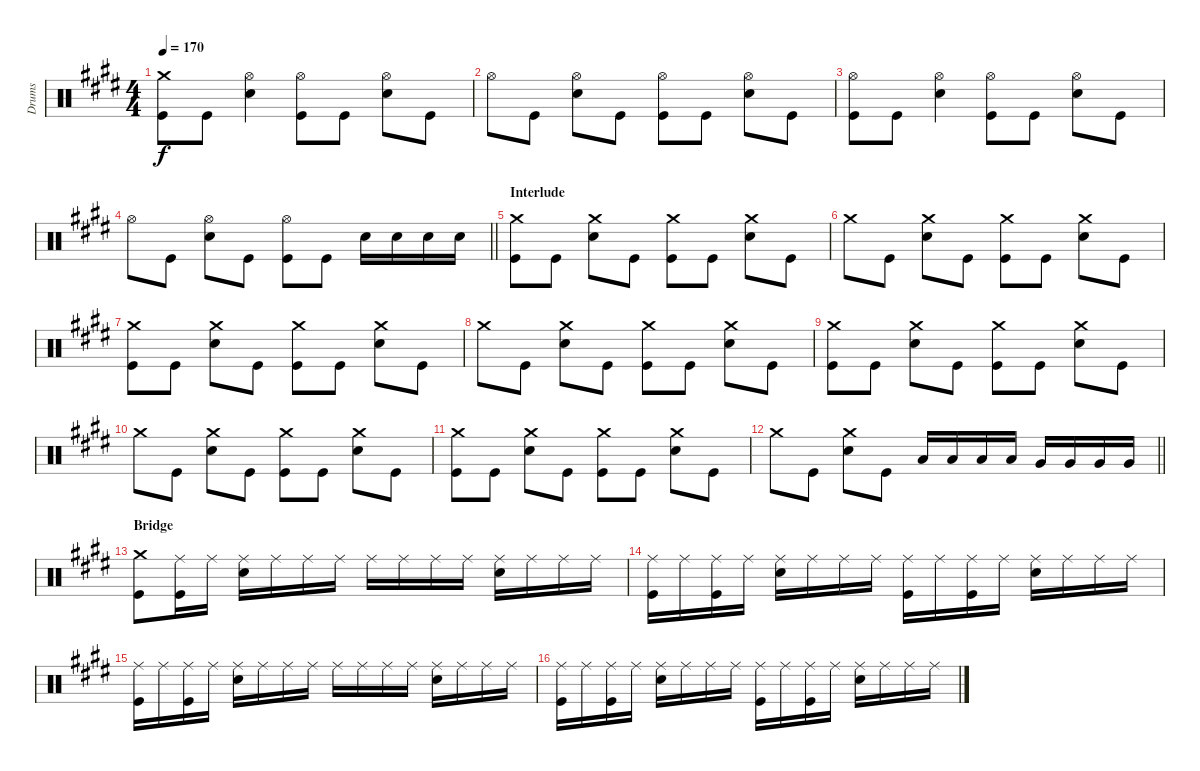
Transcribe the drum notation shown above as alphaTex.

\track ("Drums" "Drums") {instrument percussion}
\staff {score}
\articulation defaults
\ts (4 4)
\tempo 170
\clef neutral
\ks e
("Kick (hit)" "Crash medium (hit)").8{dy f} "Kick (hit)".8 ("Snare (hit) 2" "Hi-Hat (open)").4 ("Kick (hit)" "Hi-Hat (open)").8 "Kick (hit)".8 ("Snare (hit) 2" "Hi-Hat (open)").8 "Kick (hit)".8 |
"Hi-Hat (open)".8 "Kick (hit)".8 ("Snare (hit) 2" "Hi-Hat (open)").8 "Kick (hit)".8 ("Hi-Hat (open)" "Kick (hit)").8 "Kick (hit)".8 ("Snare (hit) 2" "Hi-Hat (open)").8 "Kick (hit)".8 |
("Kick (hit)" "Hi-Hat (open)").8 "Kick (hit)".8 ("Snare (hit) 2" "Hi-Hat (open)").4 ("Kick (hit)" "Hi-Hat (open)").8 "Kick (hit)".8 ("Snare (hit) 2" "Hi-Hat (open)").8 "Kick (hit)".8 |
\barLineRight lightlight "Hi-Hat (open)".8 "Kick (hit)".8
("Snare (hit) 2" "Hi-Hat (open)").8 "Kick (hit)".8 ("Hi-Hat (open)" "Kick (hit)").8 "Kick (hit)".8 "Snare (hit) 2".16 "Snare (hit) 2".16 "Snare (hit) 2".16 "Snare (hit) 2".16 |
\section ("" "Interlude")
("Kick (hit)" "Crash medium (hit)").8 "Kick (hit)".8 ("Snare (hit) 2" "Crash medium (hit)").8 "Kick (hit)".8 ("Kick (hit)" "Crash medium (hit)").8 "Kick (hit)".8 ("Snare (hit) 2" "Crash medium (hit)").8 "Kick (hit)".8 |
"Crash medium (hit)".8 "Kick (hit)".8 ("Crash medium (hit)" "Snare (hit) 2").8 "Kick (hit)".8 ("Kick (hit)" "Crash medium (hit)").8 "Kick (hit)".8 ("Crash medium (hit)" "Snare (hit) 2").8 "Kick (hit)".8 |
("Kick (hit)" "Crash medium (hit)").8 "Kick (hit)".8 ("Snare (hit) 2" "Crash medium (hit)").8 "Kick (hit)".8 ("Kick (hit)" "Crash medium (hit)").8 "Kick (hit)".8 ("Snare (hit) 2" "Crash medium (hit)").8 "Kick (hit)".8 |
"Crash medium (hit)".8 "Kick (hit)".8 ("Crash medium (hit)" "Snare (hit) 2").8 "Kick (hit)".8 ("Kick (hit)" "Crash medium (hit)").8 "Kick (hit)".8 ("Crash medium (hit)" "Snare (hit) 2").8 "Kick (hit)".8 |
("Kick (hit)" "Crash medium (hit)").8 "Kick (hit)".8 ("Snare (hit) 2" "Crash medium (hit)").8 "Kick (hit)".8 ("Kick (hit)" "Crash medium (hit)").8 "Kick (hit)".8 ("Snare (hit) 2" "Crash medium (hit)").8 "Kick (hit)".8 |
"Crash medium (hit)".8 "Kick (hit)".8 ("Crash medium (hit)" "Snare (hit) 2").8 "Kick (hit)".8 ("Kick (hit)" "Crash medium (hit)").8 "Kick (hit)".8 ("Crash medium (hit)" "Snare (hit) 2").8 "Kick (hit)".8 |
("Kick (hit)" "Crash medium (hit)").8 "Kick (hit)".8 ("Snare (hit) 2" "Crash medium (hit)").8 "Kick (hit)".8 ("Kick (hit)" "Crash medium (hit)").8 "Kick (hit)".8 ("Snare (hit) 2" "Crash medium (hit)").8 "Kick (hit)".8 |
\barLineRight lightlight "Crash medium (hit)".8 "Kick (hit)".8
("Crash medium (hit)" "Snare (hit) 2").8 "Kick (hit)".8 "Low Tom (hit)".16 "Low Tom (hit)".16 "Low Tom (hit)".16 "Low Tom (hit)".16 "Very Low Tom (hit)".16 "Very Low Tom (hit)".16 "Very Low Tom (hit)".16 "Very Low Tom (hit)".16 |
\section ("" "Bridge")
("Kick (hit)" "Crash medium (hit)").8 ("Ride (middle)" "Kick (hit)").16 "Ride (middle)".16 ("Ride (middle)" "Snare (hit) 2").16 "Ride (middle)".16 "Ride (middle)".16 "Ride (middle)".16 "Ride (middle)".16 "Ride (middle)".16 "Ride (middle)".16 "Ride (middle)".16 ("Ride (middle)" "Snare (hit) 2").16 "Ride (middle)".16 "Ride (middle)".16 "Ride (middle)".16 |
("Ride (middle)" "Kick (hit)").16 "Ride (middle)".16 ("Ride (middle)" "Kick (hit)").16 "Ride (middle)".16 ("Ride (middle)" "Snare (hit) 2").16 "Ride (middle)".16 "Ride (middle)".16 "Ride (middle)".16 ("Ride (middle)" "Kick (hit)").16 "Ride (middle)".16 ("Ride (middle)" "Kick (hit)").16 "Ride (middle)".16 ("Ride (middle)" "Snare (hit) 2").16 "Ride (middle)".16 "Ride (middle)".16 "Ride (middle)".16 |
("Ride (middle)" "Kick (hit)").16 "Ride (middle)".16 ("Ride (middle)" "Kick (hit)").16 "Ride (middle)".16 ("Ride (middle)" "Snare (hit) 2").16 "Ride (middle)".16 "Ride (middle)".16 "Ride (middle)".16 "Ride (middle)".16 "Ride (middle)".16 "Ride (middle)".16 "Ride (middle)".16 ("Ride (middle)" "Snare (hit) 2").16 "Ride (middle)".16 "Ride (middle)".16 "Ride (middle)".16 |
("Ride (middle)" "Kick (hit)").16 "Ride (middle)".16 ("Ride (middle)" "Kick (hit)").16 "Ride (middle)".16 ("Ride (middle)" "Snare (hit) 2").16 "Ride (middle)".16 "Ride (middle)".16 "Ride (middle)".16 ("Ride (middle)" "Kick (hit)").16 "Ride (middle)".16 ("Ride (middle)" "Kick (hit)").16 "Ride (middle)".16 ("Ride (middle)" "Snare (hit) 2").16 "Ride (middle)".16 "Ride (middle)".16 "Ride (middle)".16
